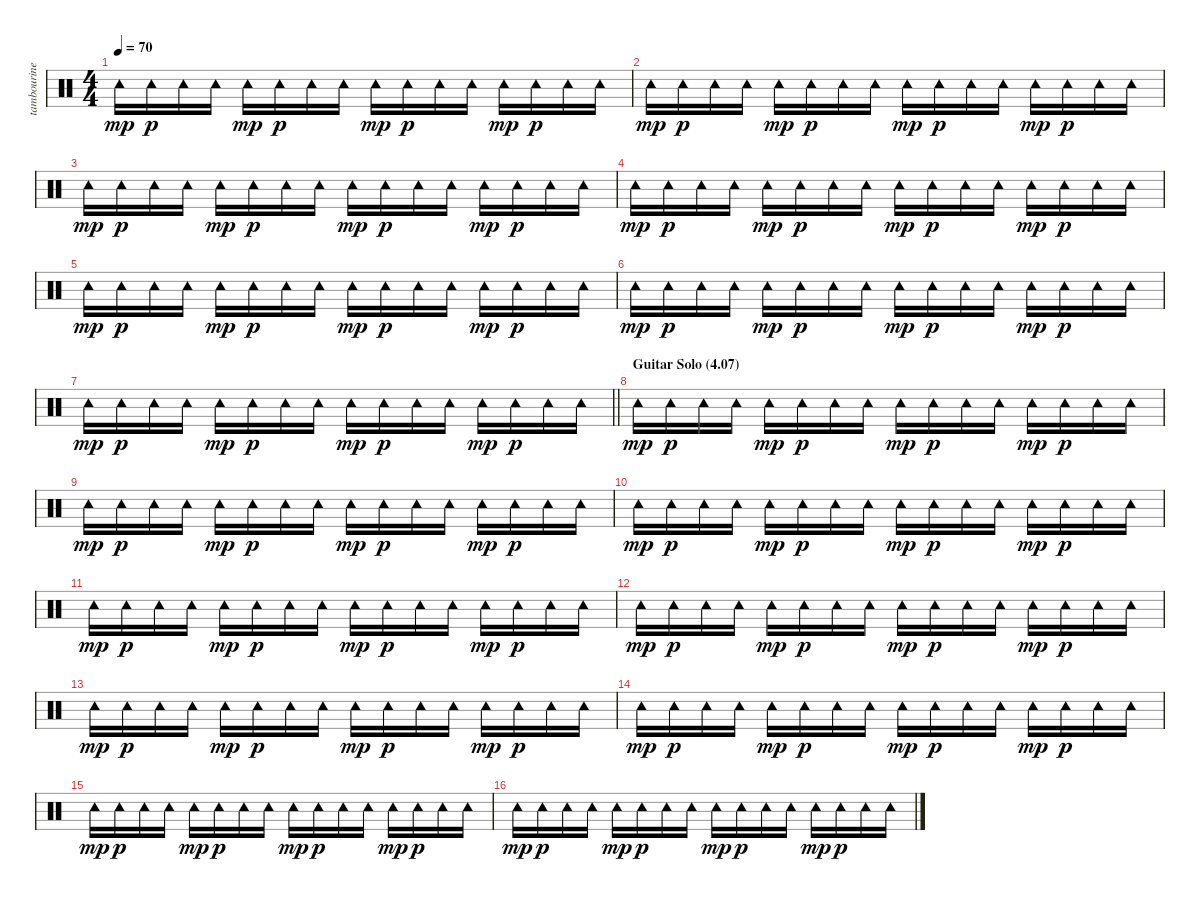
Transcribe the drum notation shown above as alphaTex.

\track ("tambourine" "tambourine") {instrument percussion}
\staff {score}
\articulation defaults
\ts (4 4)
\tempo 70
\clef neutral
\ks c "Tambourine (hit)".16{dy mp} "Tambourine (hit)".16{dy p} "Tambourine (hit)".16 "Tambourine (hit)".16 "Tambourine (hit)".16{dy mp} "Tambourine (hit)".16{dy p} "Tambourine (hit)".16 "Tambourine (hit)".16 "Tambourine (hit)".16{dy mp} "Tambourine (hit)".16{dy p} "Tambourine (hit)".16 "Tambourine (hit)".16 "Tambourine (hit)".16{dy mp} "Tambourine (hit)".16{dy p} "Tambourine (hit)".16 "Tambourine (hit)".16
|
"Tambourine (hit)".16{dy mp} "Tambourine (hit)".16{dy p} "Tambourine (hit)".16 "Tambourine (hit)".16 "Tambourine (hit)".16{dy mp} "Tambourine (hit)".16{dy p} "Tambourine (hit)".16 "Tambourine (hit)".16 "Tambourine (hit)".16{dy mp} "Tambourine (hit)".16{dy p} "Tambourine (hit)".16 "Tambourine (hit)".16 "Tambourine (hit)".16{dy mp} "Tambourine (hit)".16{dy p} "Tambourine (hit)".16 "Tambourine (hit)".16 |
"Tambourine (hit)".16{dy mp} "Tambourine (hit)".16{dy p} "Tambourine (hit)".16 "Tambourine (hit)".16 "Tambourine (hit)".16{dy mp} "Tambourine (hit)".16{dy p} "Tambourine (hit)".16 "Tambourine (hit)".16 "Tambourine (hit)".16{dy mp} "Tambourine (hit)".16{dy p} "Tambourine (hit)".16 "Tambourine (hit)".16 "Tambourine (hit)".16{dy mp} "Tambourine (hit)".16{dy p} "Tambourine (hit)".16 "Tambourine (hit)".16 |
"Tambourine (hit)".16{dy mp} "Tambourine (hit)".16{dy p} "Tambourine (hit)".16 "Tambourine (hit)".16 "Tambourine (hit)".16{dy mp} "Tambourine (hit)".16{dy p} "Tambourine (hit)".16 "Tambourine (hit)".16 "Tambourine (hit)".16{dy mp} "Tambourine (hit)".16{dy p} "Tambourine (hit)".16 "Tambourine (hit)".16 "Tambourine (hit)".16{dy mp} "Tambourine (hit)".16{dy p} "Tambourine (hit)".16 "Tambourine (hit)".16 |
"Tambourine (hit)".16{dy mp} "Tambourine (hit)".16{dy p} "Tambourine (hit)".16 "Tambourine (hit)".16 "Tambourine (hit)".16{dy mp} "Tambourine (hit)".16{dy p} "Tambourine (hit)".16 "Tambourine (hit)".16 "Tambourine (hit)".16{dy mp} "Tambourine (hit)".16{dy p} "Tambourine (hit)".16 "Tambourine (hit)".16 "Tambourine (hit)".16{dy mp} "Tambourine (hit)".16{dy p} "Tambourine (hit)".16 "Tambourine (hit)".16 |
"Tambourine (hit)".16{dy mp} "Tambourine (hit)".16{dy p} "Tambourine (hit)".16 "Tambourine (hit)".16 "Tambourine (hit)".16{dy mp} "Tambourine (hit)".16{dy p} "Tambourine (hit)".16 "Tambourine (hit)".16 "Tambourine (hit)".16{dy mp} "Tambourine (hit)".16{dy p} "Tambourine (hit)".16 "Tambourine (hit)".16 "Tambourine (hit)".16{dy mp} "Tambourine (hit)".16{dy p} "Tambourine (hit)".16 "Tambourine (hit)".16 |
\barLineRight lightlight "Tambourine (hit)".16{dy mp} "Tambourine (hit)".16{dy p} "Tambourine (hit)".16 "Tambourine (hit)".16 "Tambourine (hit)".16{dy mp} "Tambourine (hit)".16{dy p} "Tambourine (hit)".16 "Tambourine (hit)".16 "Tambourine (hit)".16{dy mp} "Tambourine (hit)".16{dy p} "Tambourine (hit)".16 "Tambourine (hit)".16 "Tambourine (hit)".16{dy mp} "Tambourine (hit)".16{dy p} "Tambourine (hit)".16 "Tambourine (hit)".16
|
\section ("" "Guitar Solo (4.07)")
"Tambourine (hit)".16{dy mp} "Tambourine (hit)".16{dy p} "Tambourine (hit)".16 "Tambourine (hit)".16 "Tambourine (hit)".16{dy mp} "Tambourine (hit)".16{dy p} "Tambourine (hit)".16 "Tambourine (hit)".16 "Tambourine (hit)".16{dy mp} "Tambourine (hit)".16{dy p} "Tambourine (hit)".16 "Tambourine (hit)".16 "Tambourine (hit)".16{dy mp} "Tambourine (hit)".16{dy p} "Tambourine (hit)".16 "Tambourine (hit)".16 |
"Tambourine (hit)".16{dy mp} "Tambourine (hit)".16{dy p} "Tambourine (hit)".16 "Tambourine (hit)".16 "Tambourine (hit)".16{dy mp} "Tambourine (hit)".16{dy p} "Tambourine (hit)".16 "Tambourine (hit)".16 "Tambourine (hit)".16{dy mp} "Tambourine (hit)".16{dy p} "Tambourine (hit)".16 "Tambourine (hit)".16 "Tambourine (hit)".16{dy mp} "Tambourine (hit)".16{dy p} "Tambourine (hit)".16 "Tambourine (hit)".16 |
"Tambourine (hit)".16{dy mp} "Tambourine (hit)".16{dy p} "Tambourine (hit)".16 "Tambourine (hit)".16 "Tambourine (hit)".16{dy mp} "Tambourine (hit)".16{dy p} "Tambourine (hit)".16 "Tambourine (hit)".16 "Tambourine (hit)".16{dy mp} "Tambourine (hit)".16{dy p} "Tambourine (hit)".16 "Tambourine (hit)".16 "Tambourine (hit)".16{dy mp} "Tambourine (hit)".16{dy p} "Tambourine (hit)".16 "Tambourine (hit)".16 |
"Tambourine (hit)".16{dy mp} "Tambourine (hit)".16{dy p} "Tambourine (hit)".16 "Tambourine (hit)".16 "Tambourine (hit)".16{dy mp} "Tambourine (hit)".16{dy p} "Tambourine (hit)".16 "Tambourine (hit)".16 "Tambourine (hit)".16{dy mp} "Tambourine (hit)".16{dy p} "Tambourine (hit)".16 "Tambourine (hit)".16 "Tambourine (hit)".16{dy mp} "Tambourine (hit)".16{dy p} "Tambourine (hit)".16 "Tambourine (hit)".16 |
"Tambourine (hit)".16{dy mp} "Tambourine (hit)".16{dy p} "Tambourine (hit)".16 "Tambourine (hit)".16 "Tambourine (hit)".16{dy mp} "Tambourine (hit)".16{dy p} "Tambourine (hit)".16 "Tambourine (hit)".16 "Tambourine (hit)".16{dy mp} "Tambourine (hit)".16{dy p} "Tambourine (hit)".16 "Tambourine (hit)".16 "Tambourine (hit)".16{dy mp} "Tambourine (hit)".16{dy p} "Tambourine (hit)".16 "Tambourine (hit)".16 |
"Tambourine (hit)".16{dy mp} "Tambourine (hit)".16{dy p} "Tambourine (hit)".16 "Tambourine (hit)".16 "Tambourine (hit)".16{dy mp} "Tambourine (hit)".16{dy p} "Tambourine (hit)".16 "Tambourine (hit)".16 "Tambourine (hit)".16{dy mp} "Tambourine (hit)".16{dy p} "Tambourine (hit)".16 "Tambourine (hit)".16 "Tambourine (hit)".16{dy mp} "Tambourine (hit)".16{dy p} "Tambourine (hit)".16 "Tambourine (hit)".16 |
"Tambourine (hit)".16{dy mp} "Tambourine (hit)".16{dy p} "Tambourine (hit)".16 "Tambourine (hit)".16 "Tambourine (hit)".16{dy mp} "Tambourine (hit)".16{dy p} "Tambourine (hit)".16 "Tambourine (hit)".16 "Tambourine (hit)".16{dy mp} "Tambourine (hit)".16{dy p} "Tambourine (hit)".16 "Tambourine (hit)".16 "Tambourine (hit)".16{dy mp} "Tambourine (hit)".16{dy p} "Tambourine (hit)".16 "Tambourine (hit)".16 |
"Tambourine (hit)".16{dy mp} "Tambourine (hit)".16{dy p} "Tambourine (hit)".16 "Tambourine (hit)".16 "Tambourine (hit)".16{dy mp} "Tambourine (hit)".16{dy p} "Tambourine (hit)".16 "Tambourine (hit)".16 "Tambourine (hit)".16{dy mp} "Tambourine (hit)".16{dy p} "Tambourine (hit)".16 "Tambourine (hit)".16 "Tambourine (hit)".16{dy mp} "Tambourine (hit)".16{dy p} "Tambourine (hit)".16 "Tambourine (hit)".16 |
"Tambourine (hit)".16{dy mp} "Tambourine (hit)".16{dy p} "Tambourine (hit)".16 "Tambourine (hit)".16 "Tambourine (hit)".16{dy mp} "Tambourine (hit)".16{dy p} "Tambourine (hit)".16 "Tambourine (hit)".16 "Tambourine (hit)".16{dy mp} "Tambourine (hit)".16{dy p} "Tambourine (hit)".16 "Tambourine (hit)".16 "Tambourine (hit)".16{dy mp} "Tambourine (hit)".16{dy p} "Tambourine (hit)".16 "Tambourine (hit)".16
